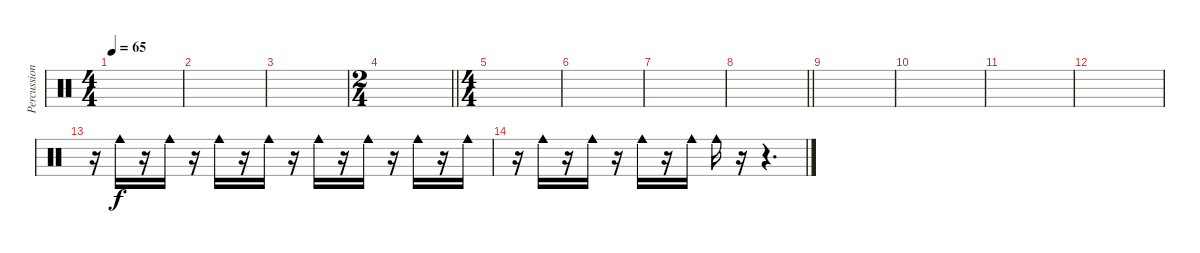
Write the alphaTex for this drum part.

\track ("Percussion 2" "Percussion") {instrument percussion}
\staff {score}
\articulation defaults
\ts (4 4)
\tempo 65
\clef neutral
\ks c
|
|
|
\ts (2 4)
\barLineRight lightlight
|
\ts (4 4)
|
|
|
\barLineRight lightlight
|
|
|
|
|
r.16 "Cowbell medium (hit)".16{dy f} r.16 "Cowbell medium (hit)".16 r.16 "Cowbell medium (hit)".16 r.16 "Cowbell medium (hit)".16 r.16 "Cowbell medium (hit)".16 r.16 "Cowbell medium (hit)".16 r.16 "Cowbell medium (hit)".16 r.16 "Cowbell medium (hit)".16 |
r.16 "Cowbell medium (hit)".16 r.16 "Cowbell medium (hit)".16 r.16 "Cowbell medium (hit)".16 r.16 "Cowbell medium (hit)".16 "Cowbell medium (hit)".16 r.16 r.4{d}
